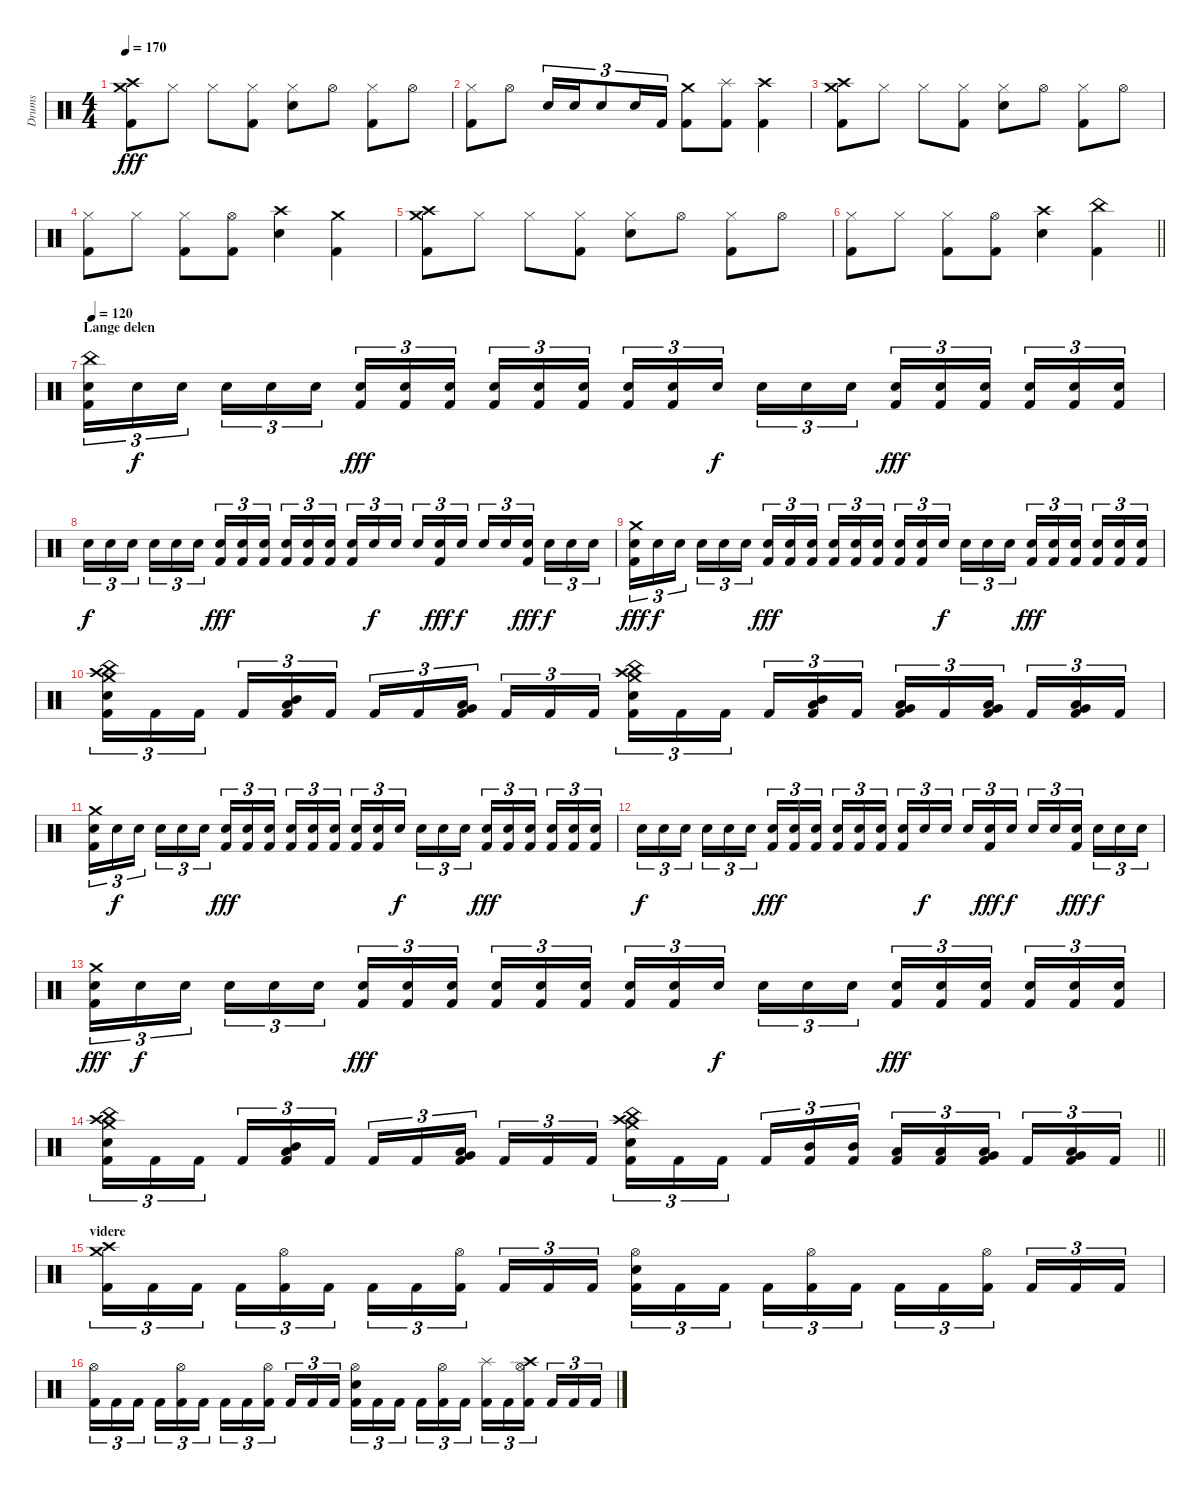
\track ("Drums" "Drums") {instrument percussion}
\staff {score}
\articulation defaults
\ts (4 4)
\tempo 170
\clef neutral
\ks c
("Crash medium (hit)" "Crash high (hit)" "Kick (hit) 2").8{dy fff} "Hi-Hat (closed)".8 "Hi-Hat (closed)".8 ("Hi-Hat (closed)" "Kick (hit) 2").8 ("Snare (hit) 2" "Hi-Hat (closed)").8 "Hi-Hat (open)".8 ("Hi-Hat (closed)" "Kick (hit) 2").8 "Hi-Hat (open)".8 |
("Hi-Hat (closed)" "Kick (hit) 2").8 "Hi-Hat (open)".8 "Snare (hit) 2".16{tu (3 2)} "Snare (hit) 2".16{tu (3 2)} "Snare (hit) 2".8{tu (3 2)} "Snare (hit) 2".16{tu (3 2)} "Kick (hit) 2".16{tu (3 2)} ("Crash medium (hit)" "Kick (hit) 2").8 ("Splash (hit)" "Kick (hit) 2").8 ("Crash high (hit)" "Kick (hit) 2").4 |
("Crash medium (hit)" "Crash high (hit)" "Kick (hit) 2").8 "Hi-Hat (closed)".8 "Hi-Hat (closed)".8 ("Hi-Hat (closed)" "Kick (hit) 2").8 ("Snare (hit) 2" "Hi-Hat (closed)").8 "Hi-Hat (open)".8 ("Hi-Hat (closed)" "Kick (hit) 2").8 "Hi-Hat (open)".8 |
("Hi-Hat (closed)" "Kick (hit) 2").8 "Hi-Hat (closed)".8 ("Hi-Hat (closed)" "Kick (hit) 2").8 ("Hi-Hat (open)" "Kick (hit) 2").8 ("Crash high (hit)" "Snare (hit) 2").4 ("Crash medium (hit)" "Kick (hit) 2").4 |
("Crash medium (hit)" "Crash high (hit)" "Kick (hit) 2").8 "Hi-Hat (closed)".8 "Hi-Hat (closed)".8 ("Hi-Hat (closed)" "Kick (hit) 2").8 ("Snare (hit) 2" "Hi-Hat (closed)").8 "Hi-Hat (open)".8 ("Hi-Hat (closed)" "Kick (hit) 2").8 "Hi-Hat (open)".8 |
\barLineRight lightlight
("Hi-Hat (closed)" "Kick (hit) 2").8 "Hi-Hat (closed)".8 ("Hi-Hat (closed)" "Kick (hit) 2").8 ("Hi-Hat (open)" "Kick (hit) 2").8 ("Crash high (hit)" "Snare (hit) 2").4 ("China (hit)" "Kick (hit) 2").4 |
\section ("" "Lange delen")
\tempo 120
("China (hit)" "Snare (hit) 2" "Kick (hit) 2").16{tu (3 2)} "Snare (hit) 2".16{tu (3 2) dy f} "Snare (hit) 2".16{tu (3 2) beam splitsecondary} "Snare (hit) 2".16{tu (3 2)} "Snare (hit) 2".16{tu (3 2)} "Snare (hit) 2".16{tu (3 2)} ("Snare (hit) 2" "Kick (hit) 2").16{tu (3 2) dy fff} ("Snare (hit) 2" "Kick (hit) 2").16{tu (3 2)} ("Snare (hit) 2" "Kick (hit) 2").16{tu (3 2) beam splitsecondary} ("Snare (hit) 2" "Kick (hit) 2").16{tu (3 2)} ("Snare (hit) 2" "Kick (hit) 2").16{tu (3 2)} ("Snare (hit) 2" "Kick (hit) 2").16{tu (3 2)} ("Snare (hit) 2" "Kick (hit) 2").16{tu (3 2)} ("Snare (hit) 2" "Kick (hit) 2").16{tu (3 2)} "Snare (hit) 2".16{tu (3 2) dy f beam splitsecondary} "Snare (hit) 2".16{tu (3 2)} "Snare (hit) 2".16{tu (3 2)} "Snare (hit) 2".16{tu (3 2)} ("Snare (hit) 2" "Kick (hit) 2").16{tu (3 2) dy fff} ("Snare (hit) 2" "Kick (hit) 2").16{tu (3 2)} ("Snare (hit) 2" "Kick (hit) 2").16{tu (3 2) beam splitsecondary} ("Snare (hit) 2" "Kick (hit) 2").16{tu (3 2)} ("Snare (hit) 2" "Kick (hit) 2").16{tu (3 2)} ("Snare (hit) 2" "Kick (hit) 2").16{tu (3 2)} |
"Snare (hit) 2".16{tu (3 2) dy f} "Snare (hit) 2".16{tu (3 2)} "Snare (hit) 2".16{tu (3 2) beam splitsecondary} "Snare (hit) 2".16{tu (3 2)} "Snare (hit) 2".16{tu (3 2)} "Snare (hit) 2".16{tu (3 2)} ("Snare (hit) 2" "Kick (hit) 2").16{tu (3 2) dy fff} ("Snare (hit) 2" "Kick (hit) 2").16{tu (3 2)} ("Snare (hit) 2" "Kick (hit) 2").16{tu (3 2) beam splitsecondary} ("Snare (hit) 2" "Kick (hit) 2").16{tu (3 2)} ("Snare (hit) 2" "Kick (hit) 2").16{tu (3 2)} ("Snare (hit) 2" "Kick (hit) 2").16{tu (3 2)} ("Snare (hit) 2" "Kick (hit) 2").16{tu (3 2)} "Snare (hit) 2".16{tu (3 2) dy f} "Snare (hit) 2".16{tu (3 2) beam splitsecondary} "Snare (hit) 2".16{tu (3 2)} ("Snare (hit) 2" "Kick (hit) 2").16{tu (3 2) dy fff} "Snare (hit) 2".16{tu (3 2) dy f} "Snare (hit) 2".16{tu (3 2)} "Snare (hit) 2".16{tu (3 2)} ("Snare (hit) 2" "Kick (hit) 2").16{tu (3 2) dy fff beam splitsecondary} "Snare (hit) 2".16{tu (3 2) dy f} "Snare (hit) 2".16{tu (3 2)} "Snare (hit) 2".16{tu (3 2)} |
("Crash medium (hit)" "Snare (hit) 2" "Kick (hit) 2").16{tu (3 2) dy fff} "Snare (hit) 2".16{tu (3 2) dy f} "Snare (hit) 2".16{tu (3 2) beam splitsecondary} "Snare (hit) 2".16{tu (3 2)} "Snare (hit) 2".16{tu (3 2)} "Snare (hit) 2".16{tu (3 2)} ("Snare (hit) 2" "Kick (hit) 2").16{tu (3 2) dy fff} ("Snare (hit) 2" "Kick (hit) 2").16{tu (3 2)} ("Snare (hit) 2" "Kick (hit) 2").16{tu (3 2) beam splitsecondary} ("Snare (hit) 2" "Kick (hit) 2").16{tu (3 2)} ("Snare (hit) 2" "Kick (hit) 2").16{tu (3 2)} ("Snare (hit) 2" "Kick (hit) 2").16{tu (3 2)} ("Snare (hit) 2" "Kick (hit) 2").16{tu (3 2)} ("Snare (hit) 2" "Kick (hit) 2").16{tu (3 2)} "Snare (hit) 2".16{tu (3 2) dy f beam splitsecondary} "Snare (hit) 2".16{tu (3 2)} "Snare (hit) 2".16{tu (3 2)} "Snare (hit) 2".16{tu (3 2)} ("Snare (hit) 2" "Kick (hit) 2").16{tu (3 2) dy fff} ("Snare (hit) 2" "Kick (hit) 2").16{tu (3 2)} ("Snare (hit) 2" "Kick (hit) 2").16{tu (3 2) beam splitsecondary} ("Snare (hit) 2" "Kick (hit) 2").16{tu (3 2)} ("Snare (hit) 2" "Kick (hit) 2").16{tu (3 2)} ("Snare (hit) 2" "Kick (hit) 2").16{tu (3 2)} |
("China (hit)" "Crash medium (hit)" "Crash high (hit)" "Snare (hit) 2" "Kick (hit) 2").16{tu (3 2)} "Kick (hit) 2".16{tu (3 2)} "Kick (hit) 2".16{tu (3 2) beam splitsecondary} "Kick (hit) 2".16{tu (3 2)} ("Mid Tom (hit)" "Low Tom (hit)" "Kick (hit) 2").16{tu (3 2)} "Kick (hit) 2".16{tu (3 2)} "Kick (hit) 2".16{tu (3 2)} "Kick (hit) 2".16{tu (3 2)} ("Low Tom (hit)" "Very Low Tom (hit)" "Kick (hit) 2").16{tu (3 2) beam splitsecondary} "Kick (hit) 2".16{tu (3 2)} "Kick (hit) 2".16{tu (3 2)} "Kick (hit) 2".16{tu (3 2)} ("China (hit)" "Crash medium (hit)" "Crash high (hit)" "Snare (hit) 2" "Kick (hit) 2").16{tu (3 2)} "Kick (hit) 2".16{tu (3 2)} "Kick (hit) 2".16{tu (3 2) beam splitsecondary} "Kick (hit) 2".16{tu (3 2)} ("Mid Tom (hit)" "Low Tom (hit)" "Kick (hit) 2").16{tu (3 2)} "Kick (hit) 2".16{tu (3 2)} ("Low Tom (hit)" "Very Low Tom (hit)" "Kick (hit) 2").16{tu (3 2)} "Kick (hit) 2".16{tu (3 2)} ("Very Low Tom (hit)" "Low Floor Tom (hit)" "Kick (hit) 2").16{tu (3 2) beam splitsecondary} "Kick (hit) 2".16{tu (3 2)} ("Very Low Tom (hit)" "Low Floor Tom (hit)" "Kick (hit) 2").16{tu (3 2)} "Kick (hit) 2".16{tu (3 2)} |
("Crash medium (hit)" "Snare (hit) 2" "Kick (hit) 2").16{tu (3 2)} "Snare (hit) 2".16{tu (3 2) dy f} "Snare (hit) 2".16{tu (3 2) beam splitsecondary} "Snare (hit) 2".16{tu (3 2)} "Snare (hit) 2".16{tu (3 2)} "Snare (hit) 2".16{tu (3 2)} ("Snare (hit) 2" "Kick (hit) 2").16{tu (3 2) dy fff} ("Snare (hit) 2" "Kick (hit) 2").16{tu (3 2)} ("Snare (hit) 2" "Kick (hit) 2").16{tu (3 2) beam splitsecondary} ("Snare (hit) 2" "Kick (hit) 2").16{tu (3 2)} ("Snare (hit) 2" "Kick (hit) 2").16{tu (3 2)} ("Snare (hit) 2" "Kick (hit) 2").16{tu (3 2)} ("Snare (hit) 2" "Kick (hit) 2").16{tu (3 2)} ("Snare (hit) 2" "Kick (hit) 2").16{tu (3 2)} "Snare (hit) 2".16{tu (3 2) dy f beam splitsecondary} "Snare (hit) 2".16{tu (3 2)} "Snare (hit) 2".16{tu (3 2)} "Snare (hit) 2".16{tu (3 2)} ("Snare (hit) 2" "Kick (hit) 2").16{tu (3 2) dy fff} ("Snare (hit) 2" "Kick (hit) 2").16{tu (3 2)} ("Snare (hit) 2" "Kick (hit) 2").16{tu (3 2) beam splitsecondary} ("Snare (hit) 2" "Kick (hit) 2").16{tu (3 2)} ("Snare (hit) 2" "Kick (hit) 2").16{tu (3 2)} ("Snare (hit) 2" "Kick (hit) 2").16{tu (3 2)} |
"Snare (hit) 2".16{tu (3 2) dy f} "Snare (hit) 2".16{tu (3 2)} "Snare (hit) 2".16{tu (3 2) beam splitsecondary} "Snare (hit) 2".16{tu (3 2)} "Snare (hit) 2".16{tu (3 2)} "Snare (hit) 2".16{tu (3 2)} ("Snare (hit) 2" "Kick (hit) 2").16{tu (3 2) dy fff} ("Snare (hit) 2" "Kick (hit) 2").16{tu (3 2)} ("Snare (hit) 2" "Kick (hit) 2").16{tu (3 2) beam splitsecondary} ("Snare (hit) 2" "Kick (hit) 2").16{tu (3 2)} ("Snare (hit) 2" "Kick (hit) 2").16{tu (3 2)} ("Snare (hit) 2" "Kick (hit) 2").16{tu (3 2)} ("Snare (hit) 2" "Kick (hit) 2").16{tu (3 2)} "Snare (hit) 2".16{tu (3 2) dy f} "Snare (hit) 2".16{tu (3 2) beam splitsecondary} "Snare (hit) 2".16{tu (3 2)} ("Snare (hit) 2" "Kick (hit) 2").16{tu (3 2) dy fff} "Snare (hit) 2".16{tu (3 2) dy f} "Snare (hit) 2".16{tu (3 2)} "Snare (hit) 2".16{tu (3 2)} ("Snare (hit) 2" "Kick (hit) 2").16{tu (3 2) dy fff beam splitsecondary} "Snare (hit) 2".16{tu (3 2) dy f} "Snare (hit) 2".16{tu (3 2)} "Snare (hit) 2".16{tu (3 2)} |
("Crash medium (hit)" "Snare (hit) 2" "Kick (hit) 2").16{tu (3 2) dy fff} "Snare (hit) 2".16{tu (3 2) dy f} "Snare (hit) 2".16{tu (3 2) beam splitsecondary} "Snare (hit) 2".16{tu (3 2)} "Snare (hit) 2".16{tu (3 2)} "Snare (hit) 2".16{tu (3 2)} ("Snare (hit) 2" "Kick (hit) 2").16{tu (3 2) dy fff} ("Snare (hit) 2" "Kick (hit) 2").16{tu (3 2)} ("Snare (hit) 2" "Kick (hit) 2").16{tu (3 2) beam splitsecondary} ("Snare (hit) 2" "Kick (hit) 2").16{tu (3 2)} ("Snare (hit) 2" "Kick (hit) 2").16{tu (3 2)} ("Snare (hit) 2" "Kick (hit) 2").16{tu (3 2)} ("Snare (hit) 2" "Kick (hit) 2").16{tu (3 2)} ("Snare (hit) 2" "Kick (hit) 2").16{tu (3 2)} "Snare (hit) 2".16{tu (3 2) dy f beam splitsecondary} "Snare (hit) 2".16{tu (3 2)} "Snare (hit) 2".16{tu (3 2)} "Snare (hit) 2".16{tu (3 2)} ("Snare (hit) 2" "Kick (hit) 2").16{tu (3 2) dy fff} ("Snare (hit) 2" "Kick (hit) 2").16{tu (3 2)} ("Snare (hit) 2" "Kick (hit) 2").16{tu (3 2) beam splitsecondary} ("Snare (hit) 2" "Kick (hit) 2").16{tu (3 2)} ("Snare (hit) 2" "Kick (hit) 2").16{tu (3 2)} ("Snare (hit) 2" "Kick (hit) 2").16{tu (3 2)} |
\barLineRight lightlight
("China (hit)" "Crash medium (hit)" "Crash high (hit)" "Snare (hit) 2" "Kick (hit) 2").16{tu (3 2)} "Kick (hit) 2".16{tu (3 2)} "Kick (hit) 2".16{tu (3 2) beam splitsecondary} "Kick (hit) 2".16{tu (3 2)} ("Mid Tom (hit)" "Low Tom (hit)" "Kick (hit) 2").16{tu (3 2)} "Kick (hit) 2".16{tu (3 2)} "Kick (hit) 2".16{tu (3 2)} "Kick (hit) 2".16{tu (3 2)} ("Low Tom (hit)" "Very Low Tom (hit)" "Kick (hit) 2").16{tu (3 2) beam splitsecondary} "Kick (hit) 2".16{tu (3 2)} "Kick (hit) 2".16{tu (3 2)} "Kick (hit) 2".16{tu (3 2)} ("China (hit)" "Crash medium (hit)" "Crash high (hit)" "Snare (hit) 2" "Kick (hit) 2").16{tu (3 2)} "Kick (hit) 2".16{tu (3 2)} "Kick (hit) 2".16{tu (3 2) beam splitsecondary} "Kick (hit) 2".16{tu (3 2)} ("Mid Tom (hit)" "Kick (hit) 2").16{tu (3 2)} ("Mid Tom (hit)" "Kick (hit) 2").16{tu (3 2)} ("Low Tom (hit)" "Kick (hit) 2").16{tu (3 2)} ("Low Tom (hit)" "Kick (hit) 2").16{tu (3 2)} ("Very Low Tom (hit)" "Low Floor Tom (hit)" "Kick (hit) 2").16{tu (3 2) beam splitsecondary} "Kick (hit) 2".16{tu (3 2)} ("Very Low Tom (hit)" "Low Floor Tom (hit)" "Kick (hit) 2").16{tu (3 2)} "Kick (hit) 2".16{tu (3 2)} |
\section ("" "videre")
("Crash medium (hit)" "Crash high (hit)" "Kick (hit) 2").16{tu (3 2)} "Kick (hit) 2".16{tu (3 2)} "Kick (hit) 2".16{tu (3 2) beam splitsecondary} "Kick (hit) 2".16{tu (3 2)} ("Hi-Hat (open)" "Kick (hit) 2").16{tu (3 2)} "Kick (hit) 2".16{tu (3 2)} "Kick (hit) 2".16{tu (3 2)} "Kick (hit) 2".16{tu (3 2)} ("Hi-Hat (open)" "Kick (hit) 2").16{tu (3 2) beam splitsecondary} "Kick (hit) 2".16{tu (3 2)} "Kick (hit) 2".16{tu (3 2)} "Kick (hit) 2".16{tu (3 2)} ("Snare (hit) 2" "Hi-Hat (open)" "Kick (hit) 2").16{tu (3 2)} "Kick (hit) 2".16{tu (3 2)} "Kick (hit) 2".16{tu (3 2) beam splitsecondary} "Kick (hit) 2".16{tu (3 2)} ("Hi-Hat (open)" "Kick (hit) 2").16{tu (3 2)} "Kick (hit) 2".16{tu (3 2)} "Kick (hit) 2".16{tu (3 2)} "Kick (hit) 2".16{tu (3 2)} ("Hi-Hat (open)" "Kick (hit) 2").16{tu (3 2) beam splitsecondary} "Kick (hit) 2".16{tu (3 2)} "Kick (hit) 2".16{tu (3 2)} "Kick (hit) 2".16{tu (3 2)} |
("Hi-Hat (open)" "Kick (hit) 2").16{tu (3 2)} "Kick (hit) 2".16{tu (3 2)} "Kick (hit) 2".16{tu (3 2) beam splitsecondary} "Kick (hit) 2".16{tu (3 2)} ("Hi-Hat (open)" "Kick (hit) 2").16{tu (3 2)} "Kick (hit) 2".16{tu (3 2)} "Kick (hit) 2".16{tu (3 2)} "Kick (hit) 2".16{tu (3 2)} ("Hi-Hat (open)" "Kick (hit) 2").16{tu (3 2) beam splitsecondary} "Kick (hit) 2".16{tu (3 2)} "Kick (hit) 2".16{tu (3 2)} "Kick (hit) 2".16{tu (3 2)} ("Snare (hit) 2" "Hi-Hat (open)" "Kick (hit) 2").16{tu (3 2)} "Kick (hit) 2".16{tu (3 2)} "Kick (hit) 2".16{tu (3 2) beam splitsecondary} "Kick (hit) 2".16{tu (3 2)} ("Hi-Hat (open)" "Kick (hit) 2").16{tu (3 2)} "Kick (hit) 2".16{tu (3 2)} ("Splash (hit)" "Kick (hit) 2").16{tu (3 2)} "Kick (hit) 2".16{tu (3 2)} ("Crash high (hit)" "Hi-Hat (open)" "Kick (hit) 2").16{tu (3 2) beam splitsecondary} "Kick (hit) 2".16{tu (3 2)} "Kick (hit) 2".16{tu (3 2)} "Kick (hit) 2".16{tu (3 2)}
